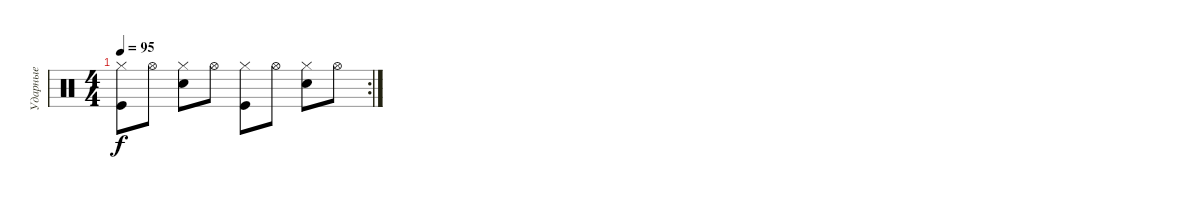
\track ("Ударные" "Ударные") {solo instrument percussion}
\staff {score}
\articulation defaults
\rc 2
\ts (4 4)
\tempo 95
\clef neutral
\ks c
("Kick (hit)" "Hi-Hat (closed)").8{dy f} "Hi-Hat (open)".8 ("Snare (hit) 2" "Hi-Hat (closed)").8 "Hi-Hat (open)".8 ("Kick (hit)" "Hi-Hat (closed)").8 "Hi-Hat (open)".8 ("Snare (hit) 2" "Hi-Hat (closed)").8 "Hi-Hat (open)".8
